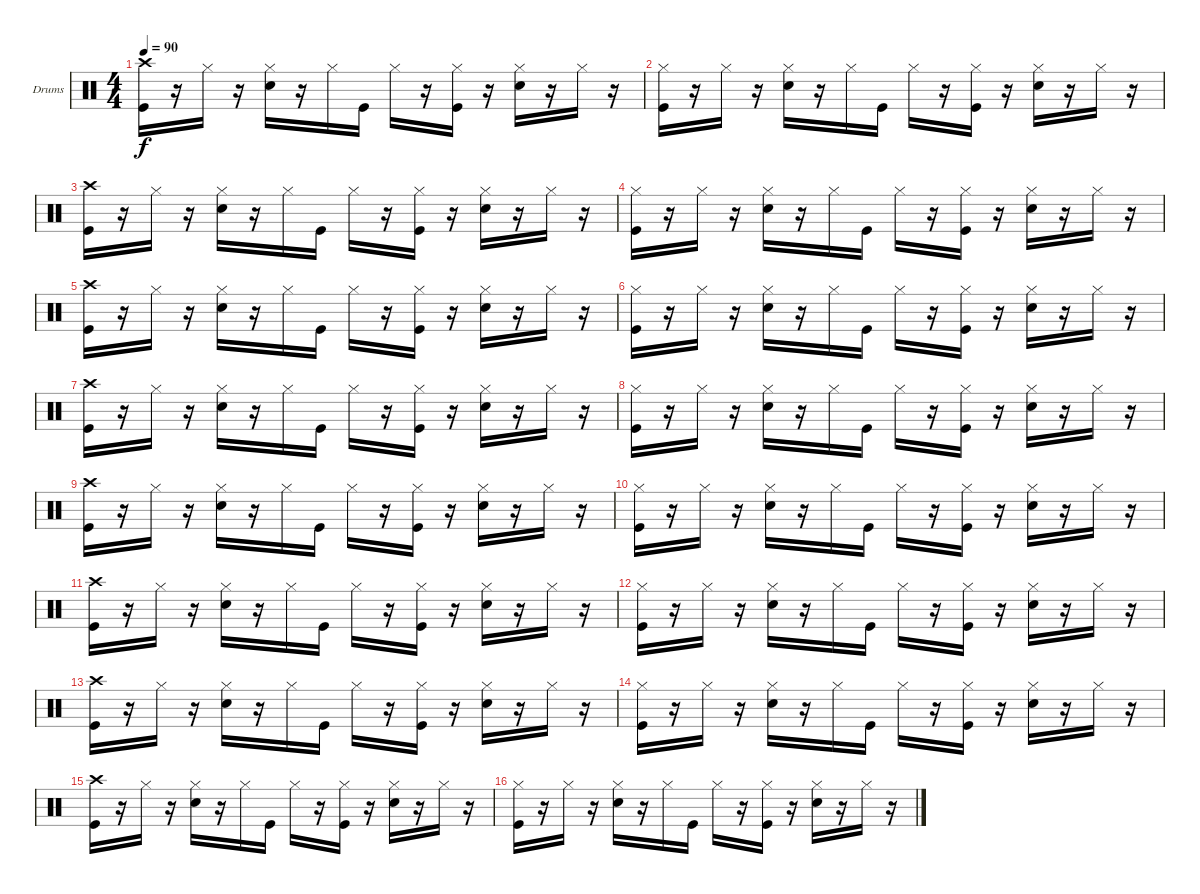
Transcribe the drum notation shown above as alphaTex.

\defaultSystemsLayout 4
\bracketExtendMode groupsimilarinstruments
\firstSystemTrackNameOrientation horizontal
\otherSystemsTrackNameOrientation horizontal
\track ("Павел Тетерин(Pa$ok)" "Drums") {instrument percussion}
\staff {score}
\articulation defaults
\ts (4 4)
\tempo 90
\clef neutral
\scale
0.333333
\ks c
("Crash high (hit)" "Kick (hit)").16{dy f} r.16 "Hi-Hat (closed)".16 r.16 ("Hi-Hat (closed)" "Snare (hit) 2").16 r.16 "Hi-Hat (closed)".16 "Kick (hit)".16 "Hi-Hat (closed)".16 r.16 ("Hi-Hat (closed)" "Kick (hit)").16 r.16 ("Hi-Hat (closed)" "Snare (hit) 2").16 r.16 "Hi-Hat (closed)".16 r.16 |
\scale
0.333333 ("Hi-Hat (closed)" "Kick (hit)").16 r.16 "Hi-Hat (closed)".16 r.16 ("Hi-Hat (closed)" "Snare (hit) 2").16 r.16 "Hi-Hat (closed)".16 "Kick (hit)".16 "Hi-Hat (closed)".16 r.16 ("Hi-Hat (closed)" "Kick (hit)").16 r.16 ("Hi-Hat (closed)" "Snare (hit) 2").16 r.16 "Hi-Hat (closed)".16 r.16 |
\scale
0.333333 ("Crash high (hit)" "Kick (hit)").16 r.16 "Hi-Hat (closed)".16 r.16 ("Hi-Hat (closed)" "Snare (hit) 2").16 r.16 "Hi-Hat (closed)".16 "Kick (hit)".16 "Hi-Hat (closed)".16 r.16 ("Hi-Hat (closed)" "Kick (hit)").16 r.16 ("Hi-Hat (closed)" "Snare (hit) 2").16 r.16 "Hi-Hat (closed)".16 r.16 |
\scale
0.333333 ("Hi-Hat (closed)" "Kick (hit)").16 r.16 "Hi-Hat (closed)".16 r.16 ("Hi-Hat (closed)" "Snare (hit) 2").16 r.16 "Hi-Hat (closed)".16 "Kick (hit)".16 "Hi-Hat (closed)".16 r.16 ("Hi-Hat (closed)" "Kick (hit)").16 r.16 ("Hi-Hat (closed)" "Snare (hit) 2").16 r.16 "Hi-Hat (closed)".16 r.16 |
\scale
0.333333 ("Crash high (hit)" "Kick (hit)").16 r.16 "Hi-Hat (closed)".16 r.16 ("Hi-Hat (closed)" "Snare (hit) 2").16 r.16 "Hi-Hat (closed)".16 "Kick (hit)".16 "Hi-Hat (closed)".16 r.16 ("Hi-Hat (closed)" "Kick (hit)").16 r.16 ("Hi-Hat (closed)" "Snare (hit) 2").16 r.16 "Hi-Hat (closed)".16 r.16 |
\scale
0.333333 ("Hi-Hat (closed)" "Kick (hit)").16 r.16 "Hi-Hat (closed)".16 r.16 ("Hi-Hat (closed)" "Snare (hit) 2").16 r.16 "Hi-Hat (closed)".16 "Kick (hit)".16 "Hi-Hat (closed)".16 r.16 ("Hi-Hat (closed)" "Kick (hit)").16 r.16 ("Hi-Hat (closed)" "Snare (hit) 2").16 r.16 "Hi-Hat (closed)".16 r.16 |
\scale
0.333333 ("Crash high (hit)" "Kick (hit)").16 r.16 "Hi-Hat (closed)".16 r.16 ("Hi-Hat (closed)" "Snare (hit) 2").16 r.16 "Hi-Hat (closed)".16 "Kick (hit)".16 "Hi-Hat (closed)".16 r.16 ("Hi-Hat (closed)" "Kick (hit)").16 r.16 ("Hi-Hat (closed)" "Snare (hit) 2").16 r.16 "Hi-Hat (closed)".16 r.16 |
\scale
0.333333 ("Hi-Hat (closed)" "Kick (hit)").16 r.16 "Hi-Hat (closed)".16 r.16 ("Hi-Hat (closed)" "Snare (hit) 2").16 r.16 "Hi-Hat (closed)".16 "Kick (hit)".16 "Hi-Hat (closed)".16 r.16 ("Hi-Hat (closed)" "Kick (hit)").16 r.16 ("Hi-Hat (closed)" "Snare (hit) 2").16 r.16 "Hi-Hat (closed)".16 r.16 |
\scale
0.333333 ("Crash high (hit)" "Kick (hit)").16 r.16 "Hi-Hat (closed)".16 r.16 ("Hi-Hat (closed)" "Snare (hit) 2").16 r.16 "Hi-Hat (closed)".16 "Kick (hit)".16 "Hi-Hat (closed)".16 r.16 ("Hi-Hat (closed)" "Kick (hit)").16 r.16 ("Hi-Hat (closed)" "Snare (hit) 2").16 r.16 "Hi-Hat (closed)".16 r.16 |
\scale
0.333333 ("Hi-Hat (closed)" "Kick (hit)").16 r.16 "Hi-Hat (closed)".16 r.16 ("Hi-Hat (closed)" "Snare (hit) 2").16 r.16 "Hi-Hat (closed)".16 "Kick (hit)".16 "Hi-Hat (closed)".16 r.16 ("Hi-Hat (closed)" "Kick (hit)").16 r.16 ("Hi-Hat (closed)" "Snare (hit) 2").16 r.16 "Hi-Hat (closed)".16 r.16 |
\scale
0.333333 ("Crash high (hit)" "Kick (hit)").16 r.16 "Hi-Hat (closed)".16 r.16 ("Hi-Hat (closed)" "Snare (hit) 2").16 r.16 "Hi-Hat (closed)".16 "Kick (hit)".16 "Hi-Hat (closed)".16 r.16 ("Hi-Hat (closed)" "Kick (hit)").16 r.16 ("Hi-Hat (closed)" "Snare (hit) 2").16 r.16 "Hi-Hat (closed)".16 r.16 |
\scale
0.333333 ("Hi-Hat (closed)" "Kick (hit)").16 r.16 "Hi-Hat (closed)".16 r.16 ("Hi-Hat (closed)" "Snare (hit) 2").16 r.16 "Hi-Hat (closed)".16 "Kick (hit)".16 "Hi-Hat (closed)".16 r.16 ("Hi-Hat (closed)" "Kick (hit)").16 r.16 ("Hi-Hat (closed)" "Snare (hit) 2").16 r.16 "Hi-Hat (closed)".16 r.16 |
\scale
0.333333 ("Crash high (hit)" "Kick (hit)").16 r.16 "Hi-Hat (closed)".16 r.16 ("Hi-Hat (closed)" "Snare (hit) 2").16 r.16 "Hi-Hat (closed)".16 "Kick (hit)".16 "Hi-Hat (closed)".16 r.16 ("Hi-Hat (closed)" "Kick (hit)").16 r.16 ("Hi-Hat (closed)" "Snare (hit) 2").16 r.16 "Hi-Hat (closed)".16 r.16 |
\scale
0.333333 ("Hi-Hat (closed)" "Kick (hit)").16 r.16 "Hi-Hat (closed)".16 r.16 ("Hi-Hat (closed)" "Snare (hit) 2").16 r.16 "Hi-Hat (closed)".16 "Kick (hit)".16 "Hi-Hat (closed)".16 r.16 ("Hi-Hat (closed)" "Kick (hit)").16 r.16 ("Hi-Hat (closed)" "Snare (hit) 2").16 r.16 "Hi-Hat (closed)".16 r.16 |
\scale
0.333333 ("Crash high (hit)" "Kick (hit)").16 r.16 "Hi-Hat (closed)".16 r.16 ("Hi-Hat (closed)" "Snare (hit) 2").16 r.16 "Hi-Hat (closed)".16 "Kick (hit)".16 "Hi-Hat (closed)".16 r.16 ("Hi-Hat (closed)" "Kick (hit)").16 r.16 ("Hi-Hat (closed)" "Snare (hit) 2").16 r.16 "Hi-Hat (closed)".16 r.16 |
\scale
0.333333 ("Hi-Hat (closed)" "Kick (hit)").16 r.16 "Hi-Hat (closed)".16 r.16 ("Hi-Hat (closed)" "Snare (hit) 2").16 r.16 "Hi-Hat (closed)".16 "Kick (hit)".16 "Hi-Hat (closed)".16 r.16 ("Hi-Hat (closed)" "Kick (hit)").16 r.16 ("Hi-Hat (closed)" "Snare (hit) 2").16 r.16 "Hi-Hat (closed)".16 r.16
